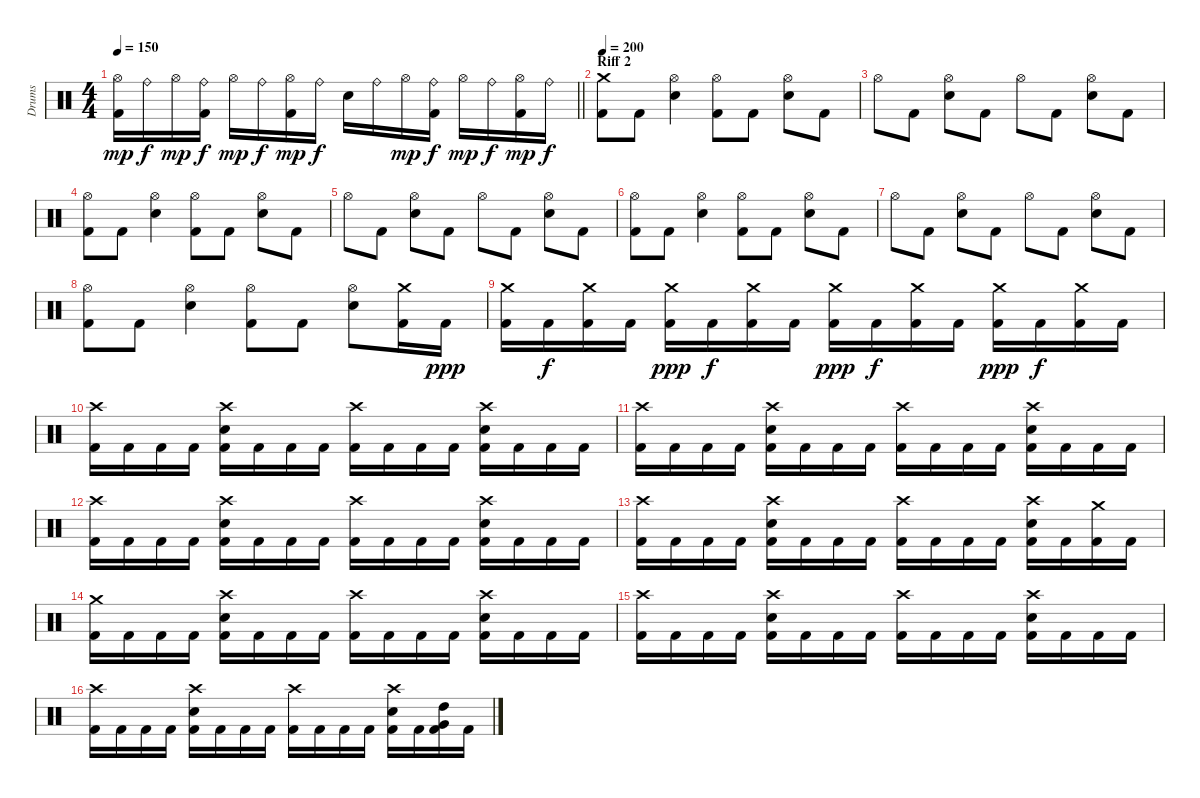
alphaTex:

\track ("Drums" "Drums") {instrument percussion}
\staff {score}
\articulation defaults
\ts (4 4)
\tempo 150
\clef neutral
\barLineRight lightlight
\ks c
("Hi-Hat (open)" "Kick (hit) 2").16{dy mp} "Ride (bell)".16{dy f} "Hi-Hat (open)".16{dy mp} ("Ride (bell)" "Kick (hit) 2").16{dy f} "Hi-Hat (open)".16{dy mp} "Ride (bell)".16{dy f} ("Hi-Hat (open)" "Kick (hit) 2").16{dy mp} "Ride (bell)".16{dy f} "Snare (hit) 2".16 "Ride (bell)".16 "Hi-Hat (open)".16{dy mp} ("Ride (bell)" "Kick (hit) 2").16{dy f} "Hi-Hat (open)".16{dy mp} "Ride (bell)".16{dy f} ("Hi-Hat (open)" "Kick (hit) 2").16{dy mp} "Ride (bell)".16{dy f} |
\section ("" "Riff 2")
\tempo 200
("Crash medium (hit)" "Kick (hit) 2").8 "Kick (hit) 2".8 ("Hi-Hat (open)" "Snare (hit) 2").4 ("Hi-Hat (open)" "Kick (hit) 2").8 "Kick (hit) 2".8 ("Hi-Hat (open)" "Snare (hit) 2").8 "Kick (hit) 2".8 |
"Hi-Hat (open)".8 "Kick (hit) 2".8 ("Hi-Hat (open)" "Snare (hit) 2").8 "Kick (hit) 2".8 "Hi-Hat (open)".8 "Kick (hit) 2".8 ("Hi-Hat (open)" "Snare (hit) 2").8 "Kick (hit) 2".8 |
("Hi-Hat (open)" "Kick (hit) 2").8 "Kick (hit) 2".8 ("Hi-Hat (open)" "Snare (hit) 2").4 ("Hi-Hat (open)" "Kick (hit) 2").8 "Kick (hit) 2".8 ("Hi-Hat (open)" "Snare (hit) 2").8 "Kick (hit) 2".8 |
"Hi-Hat (open)".8 "Kick (hit) 2".8 ("Hi-Hat (open)" "Snare (hit) 2").8 "Kick (hit) 2".8 "Hi-Hat (open)".8 "Kick (hit) 2".8 ("Hi-Hat (open)" "Snare (hit) 2").8 "Kick (hit) 2".8 |
("Hi-Hat (open)" "Kick (hit) 2").8 "Kick (hit) 2".8 ("Hi-Hat (open)" "Snare (hit) 2").4 ("Hi-Hat (open)" "Kick (hit) 2").8 "Kick (hit) 2".8 ("Hi-Hat (open)" "Snare (hit) 2").8 "Kick (hit) 2".8 |
"Hi-Hat (open)".8 "Kick (hit) 2".8 ("Hi-Hat (open)" "Snare (hit) 2").8 "Kick (hit) 2".8 "Hi-Hat (open)".8 "Kick (hit) 2".8 ("Hi-Hat (open)" "Snare (hit) 2").8 "Kick (hit) 2".8 |
("Hi-Hat (open)" "Kick (hit) 2").8 "Kick (hit) 2".8 ("Hi-Hat (open)" "Snare (hit) 2").4 ("Hi-Hat (open)" "Kick (hit) 2").8 "Kick (hit) 2".8 ("Hi-Hat (open)" "Snare (hit) 2").8 ("Crash medium (hit)" "Kick (hit) 2").16 "Kick (hit) 2".16{dy ppp} |
("Crash medium (hit)" "Kick (hit) 2").16 "Kick (hit) 2".16{dy f} ("Crash medium (hit)" "Kick (hit) 2").16 "Kick (hit) 2".16 ("Crash medium (hit)" "Kick (hit) 2").16{dy ppp} "Kick (hit) 2".16{dy f} ("Crash medium (hit)" "Kick (hit) 2").16 "Kick (hit) 2".16 ("Crash medium (hit)" "Kick (hit) 2").16{dy ppp} "Kick (hit) 2".16{dy f} ("Crash medium (hit)" "Kick (hit) 2").16 "Kick (hit) 2".16 ("Crash medium (hit)" "Kick (hit) 2").16{dy ppp} "Kick (hit) 2".16{dy f} ("Crash medium (hit)" "Kick (hit) 2").16 "Kick (hit) 2".16 |
("Crash high (hit)" "Kick (hit) 2").16 "Kick (hit) 2".16 "Kick (hit) 2".16 "Kick (hit) 2".16 ("Crash high (hit)" "Snare (hit) 2" "Kick (hit) 2").16 "Kick (hit) 2".16 "Kick (hit) 2".16 "Kick (hit) 2".16 ("Crash high (hit)" "Kick (hit) 2").16 "Kick (hit) 2".16 "Kick (hit) 2".16 "Kick (hit) 2".16 ("Crash high (hit)" "Snare (hit) 2" "Kick (hit) 2").16 "Kick (hit) 2".16 "Kick (hit) 2".16 "Kick (hit) 2".16 |
("Crash high (hit)" "Kick (hit) 2").16 "Kick (hit) 2".16 "Kick (hit) 2".16 "Kick (hit) 2".16 ("Crash high (hit)" "Snare (hit) 2" "Kick (hit) 2").16 "Kick (hit) 2".16 "Kick (hit) 2".16 "Kick (hit) 2".16 ("Crash high (hit)" "Kick (hit) 2").16 "Kick (hit) 2".16 "Kick (hit) 2".16 "Kick (hit) 2".16 ("Crash high (hit)" "Snare (hit) 2" "Kick (hit) 2").16 "Kick (hit) 2".16 "Kick (hit) 2".16 "Kick (hit) 2".16 |
("Crash high (hit)" "Kick (hit) 2").16 "Kick (hit) 2".16 "Kick (hit) 2".16 "Kick (hit) 2".16 ("Crash high (hit)" "Snare (hit) 2" "Kick (hit) 2").16 "Kick (hit) 2".16 "Kick (hit) 2".16 "Kick (hit) 2".16 ("Crash high (hit)" "Kick (hit) 2").16 "Kick (hit) 2".16 "Kick (hit) 2".16 "Kick (hit) 2".16 ("Crash high (hit)" "Snare (hit) 2" "Kick (hit) 2").16 "Kick (hit) 2".16 "Kick (hit) 2".16 "Kick (hit) 2".16 |
("Crash high (hit)" "Kick (hit) 2").16 "Kick (hit) 2".16 "Kick (hit) 2".16 "Kick (hit) 2".16 ("Crash high (hit)" "Snare (hit) 2" "Kick (hit) 2").16 "Kick (hit) 2".16 "Kick (hit) 2".16 "Kick (hit) 2".16 ("Crash high (hit)" "Kick (hit) 2").16 "Kick (hit) 2".16 "Kick (hit) 2".16 "Kick (hit) 2".16 ("Crash high (hit)" "Snare (hit) 2" "Kick (hit) 2").16 "Kick (hit) 2".16 ("Crash medium (hit)" "Kick (hit) 2").16 "Kick (hit) 2".16 |
("Crash medium (hit)" "Kick (hit) 2").16 "Kick (hit) 2".16 "Kick (hit) 2".16 "Kick (hit) 2".16 ("Crash high (hit)" "Snare (hit) 2" "Kick (hit) 2").16 "Kick (hit) 2".16 "Kick (hit) 2".16 "Kick (hit) 2".16 ("Crash high (hit)" "Kick (hit) 2").16 "Kick (hit) 2".16 "Kick (hit) 2".16 "Kick (hit) 2".16 ("Crash high (hit)" "Snare (hit) 2" "Kick (hit) 2").16 "Kick (hit) 2".16 "Kick (hit) 2".16 "Kick (hit) 2".16 |
("Crash high (hit)" "Kick (hit) 2").16 "Kick (hit) 2".16 "Kick (hit) 2".16 "Kick (hit) 2".16 ("Crash high (hit)" "Snare (hit) 2" "Kick (hit) 2").16 "Kick (hit) 2".16 "Kick (hit) 2".16 "Kick (hit) 2".16 ("Crash high (hit)" "Kick (hit) 2").16 "Kick (hit) 2".16 "Kick (hit) 2".16 "Kick (hit) 2".16 ("Crash high (hit)" "Snare (hit) 2" "Kick (hit) 2").16 "Kick (hit) 2".16 "Kick (hit) 2".16 "Kick (hit) 2".16 |
("Crash high (hit)" "Kick (hit) 2").16 "Kick (hit) 2".16 "Kick (hit) 2".16 "Kick (hit) 2".16 ("Crash high (hit)" "Snare (hit) 2" "Kick (hit) 2").16 "Kick (hit) 2".16 "Kick (hit) 2".16 "Kick (hit) 2".16 ("Crash high (hit)" "Kick (hit) 2").16 "Kick (hit) 2".16 "Kick (hit) 2".16 "Kick (hit) 2".16 ("Crash high (hit)" "Snare (hit) 2" "Kick (hit) 2").16 "Kick (hit) 2".16 ("High Tom (hit)" "Very Low Tom (hit)" "Kick (hit) 2").16 "Kick (hit) 2".16
